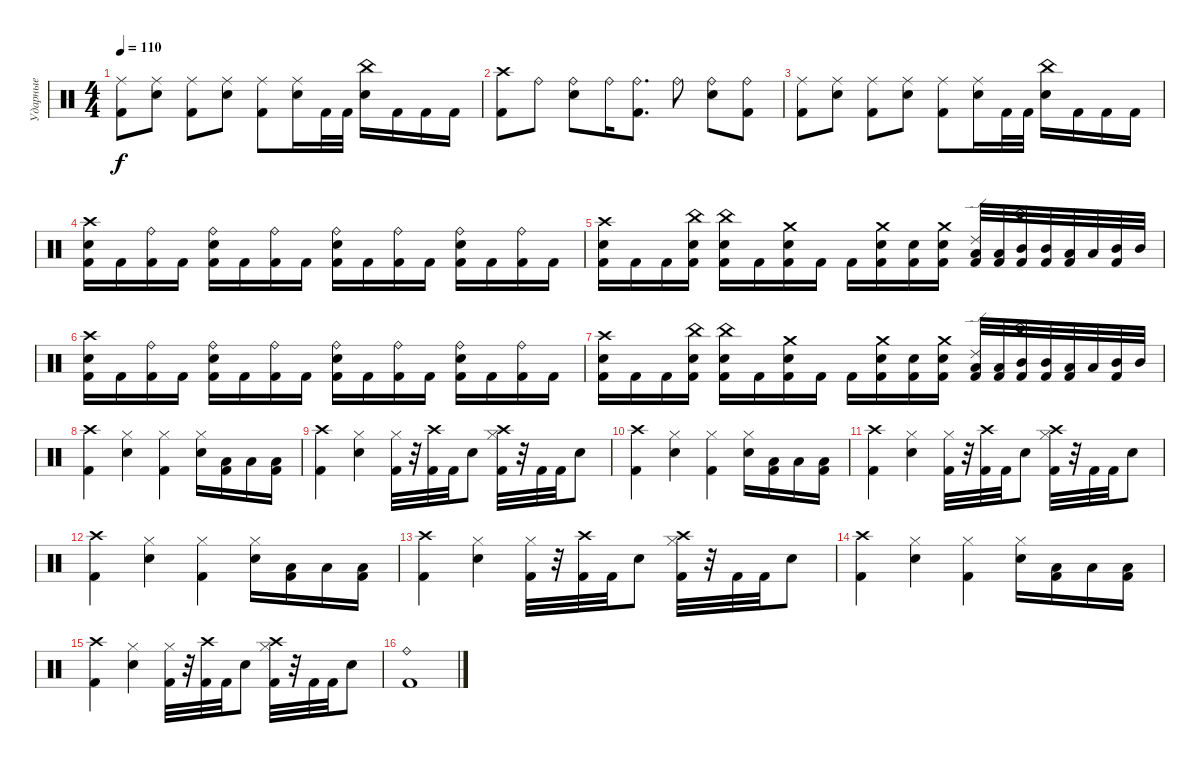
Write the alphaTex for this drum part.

\track ("Ударные" "Ударные") {instrument percussion}
\staff {score}
\articulation defaults
\ts (4 4)
\tempo 110
\clef neutral
\ks c
("Kick (hit) 2" "Ride (middle)").8{dy f} ("Electric Snare (hit)" "Ride (middle)").8 ("Kick (hit) 2" "Ride (middle)").8 ("Electric Snare (hit)" "Ride (middle)").8 ("Kick (hit) 2" "Ride (middle)").8 ("Electric Snare (hit)" "Ride (middle)").16 "Kick (hit) 2".32 "Kick (hit) 2".32 ("Electric Snare (hit)" "China (hit)").16 "Kick (hit) 2".16 "Kick (hit) 2".16 "Kick (hit) 2".16 |
("Kick (hit) 2" "Crash high (hit)").8 "Ride (bell)".8 ("Electric Snare (hit)" "Ride (bell)").8 "Ride (bell)".16 ("Kick (hit) 2" "Ride (bell)").8{d} "Ride (bell)".8 ("Electric Snare (hit)" "Ride (bell)").8 ("Kick (hit) 2" "Ride (bell)").8 |
("Kick (hit) 2" "Ride (middle)").8 ("Electric Snare (hit)" "Ride (middle)").8 ("Kick (hit) 2" "Ride (middle)").8 ("Electric Snare (hit)" "Ride (middle)").8 ("Kick (hit) 2" "Ride (middle)").8 ("Electric Snare (hit)" "Ride (middle)").16 "Kick (hit) 2".32 "Kick (hit) 2".32 ("Electric Snare (hit)" "China (hit)").16 "Kick (hit) 2".16 "Kick (hit) 2".16 "Kick (hit) 2".16 |
("Kick (hit) 2" "Electric Snare (hit)" "Crash high (hit)").16 "Kick (hit) 2".16 ("Kick (hit) 2" "Ride (bell)").16 "Kick (hit) 2".16 ("Kick (hit) 2" "Electric Snare (hit)" "Ride (bell)").16 "Kick (hit) 2".16 ("Kick (hit) 2" "Ride (bell)").16 "Kick (hit) 2".16 ("Kick (hit) 2" "Electric Snare (hit)" "Ride (bell)").16 "Kick (hit) 2".16 ("Kick (hit) 2" "Ride (bell)").16 "Kick (hit) 2".16 ("Kick (hit) 2" "Electric Snare (hit)" "Ride (bell)").16 "Kick (hit) 2".16 ("Kick (hit) 2" "Ride (bell)").16 "Kick (hit) 2".16 |
("Kick (hit) 2" "Electric Snare (hit)" "Crash high (hit)").16 "Kick (hit) 2".16 "Kick (hit) 2".16 ("Kick (hit) 2" "Electric Snare (hit)" "China (hit)").16 ("Kick (hit) 2" "Electric Snare (hit)" "China (hit)").16 "Kick (hit) 2".16 ("Kick (hit) 2" "Electric Snare (hit)" "Crash medium (hit)").16 "Kick (hit) 2".16 "Kick (hit) 2".16 ("Kick (hit) 2" "Electric Snare (hit)" "Crash medium (hit)").16 ("Kick (hit) 2" "Electric Snare (hit)").16 ("Kick (hit) 2" "Electric Snare (hit)" "Crash medium (hit)").16 ("Kick (hit) 2" "Low Tom (hit)" "Ride (edge) 2").32 ("Kick (hit) 2" "Low Tom (hit)").32 ("Kick (hit) 2" "Mid Tom (hit)" "China (hit)").32 ("Kick (hit) 2" "Mid Tom (hit)").32 ("Kick (hit) 2" "Low Tom (hit)").32 "Low Tom (hit)".32 ("Kick (hit) 2" "Mid Tom (hit)").32 "Mid Tom (hit)".32 |
("Kick (hit) 2" "Electric Snare (hit)" "Crash high (hit)").16 "Kick (hit) 2".16 ("Kick (hit) 2" "Ride (bell)").16 "Kick (hit) 2".16 ("Kick (hit) 2" "Electric Snare (hit)" "Ride (bell)").16 "Kick (hit) 2".16 ("Kick (hit) 2" "Ride (bell)").16 "Kick (hit) 2".16 ("Kick (hit) 2" "Electric Snare (hit)" "Ride (bell)").16 "Kick (hit) 2".16 ("Kick (hit) 2" "Ride (bell)").16 "Kick (hit) 2".16 ("Kick (hit) 2" "Electric Snare (hit)" "Ride (bell)").16 "Kick (hit) 2".16 ("Kick (hit) 2" "Ride (bell)").16 "Kick (hit) 2".16 |
("Kick (hit) 2" "Electric Snare (hit)" "Crash high (hit)").16 "Kick (hit) 2".16 "Kick (hit) 2".16 ("Kick (hit) 2" "Electric Snare (hit)" "China (hit)").16 ("Kick (hit) 2" "Electric Snare (hit)" "China (hit)").16 "Kick (hit) 2".16 ("Kick (hit) 2" "Electric Snare (hit)" "Crash medium (hit)").16 "Kick (hit) 2".16 "Kick (hit) 2".16 ("Kick (hit) 2" "Electric Snare (hit)" "Crash medium (hit)").16 ("Kick (hit) 2" "Electric Snare (hit)").16 ("Kick (hit) 2" "Electric Snare (hit)" "Crash medium (hit)").16 ("Kick (hit) 2" "Low Tom (hit)" "Ride (edge) 2").32 ("Kick (hit) 2" "Low Tom (hit)").32 ("Kick (hit) 2" "Mid Tom (hit)" "China (hit)").32 ("Kick (hit) 2" "Mid Tom (hit)").32 ("Kick (hit) 2" "Low Tom (hit)").32 "Low Tom (hit)".32 ("Kick (hit) 2" "Mid Tom (hit)").32 "Mid Tom (hit)".32 |
("Crash high (hit)" "Kick (hit) 2").4 ("Hi-Hat (closed)" "Electric Snare (hit)").4 ("Kick (hit) 2" "Hi-Hat (closed)").4 ("Hi-Hat (closed)" "Electric Snare (hit)").16 ("Kick (hit) 2" "Low Tom (hit)").16 "Low Tom (hit)".16 ("Kick (hit) 2" "Low Tom (hit)").16 |
("Crash high (hit)" "Kick (hit) 2").4 ("Hi-Hat (closed)" "Electric Snare (hit)").4 ("Kick (hit) 2" "Hi-Hat (closed)").32 r.32 ("Kick (hit) 2" "Crash high (hit)").32 "Kick (hit) 2".32 "Electric Snare (hit)".8 ("Hi-Hat (closed)" "Kick (hit) 2" "Crash high (hit)").32 r.32 "Kick (hit) 2".32 "Kick (hit) 2".32 "Electric Snare (hit)".8 |
("Crash high (hit)" "Kick (hit) 2").4 ("Hi-Hat (closed)" "Electric Snare (hit)").4 ("Kick (hit) 2" "Hi-Hat (closed)").4 ("Hi-Hat (closed)" "Electric Snare (hit)").16 ("Kick (hit) 2" "Low Tom (hit)").16 "Low Tom (hit)".16 ("Kick (hit) 2" "Low Tom (hit)").16 |
("Crash high (hit)" "Kick (hit) 2").4 ("Hi-Hat (closed)" "Electric Snare (hit)").4 ("Kick (hit) 2" "Hi-Hat (closed)").32 r.32 ("Kick (hit) 2" "Crash high (hit)").32 "Kick (hit) 2".32 "Electric Snare (hit)".8 ("Hi-Hat (closed)" "Kick (hit) 2" "Crash high (hit)").32 r.32 "Kick (hit) 2".32 "Kick (hit) 2".32 "Electric Snare (hit)".8 |
("Crash high (hit)" "Kick (hit) 2").4 ("Hi-Hat (closed)" "Electric Snare (hit)").4 ("Kick (hit) 2" "Hi-Hat (closed)").4 ("Hi-Hat (closed)" "Electric Snare (hit)").16 ("Kick (hit) 2" "Low Tom (hit)").16 "Low Tom (hit)".16 ("Kick (hit) 2" "Low Tom (hit)").16 |
("Crash high (hit)" "Kick (hit) 2").4 ("Hi-Hat (closed)" "Electric Snare (hit)").4 ("Kick (hit) 2" "Hi-Hat (closed)").32 r.32 ("Kick (hit) 2" "Crash high (hit)").32 "Kick (hit) 2".32 "Electric Snare (hit)".8 ("Hi-Hat (closed)" "Kick (hit) 2" "Crash high (hit)").32 r.32 "Kick (hit) 2".32 "Kick (hit) 2".32 "Electric Snare (hit)".8 |
("Crash high (hit)" "Kick (hit) 2").4 ("Hi-Hat (closed)" "Electric Snare (hit)").4 ("Kick (hit) 2" "Hi-Hat (closed)").4 ("Hi-Hat (closed)" "Electric Snare (hit)").16 ("Kick (hit) 2" "Low Tom (hit)").16 "Low Tom (hit)".16 ("Kick (hit) 2" "Low Tom (hit)").16 |
("Crash high (hit)" "Kick (hit) 2").4 ("Hi-Hat (closed)" "Electric Snare (hit)").4 ("Kick (hit) 2" "Hi-Hat (closed)").32 r.32 ("Kick (hit) 2" "Crash high (hit)").32 "Kick (hit) 2".32 "Electric Snare (hit)".8 ("Hi-Hat (closed)" "Kick (hit) 2" "Crash high (hit)").32 r.32 "Kick (hit) 2".32 "Kick (hit) 2".32 "Electric Snare (hit)".8 |
("Ride (bell)" "Kick (hit) 2").1
